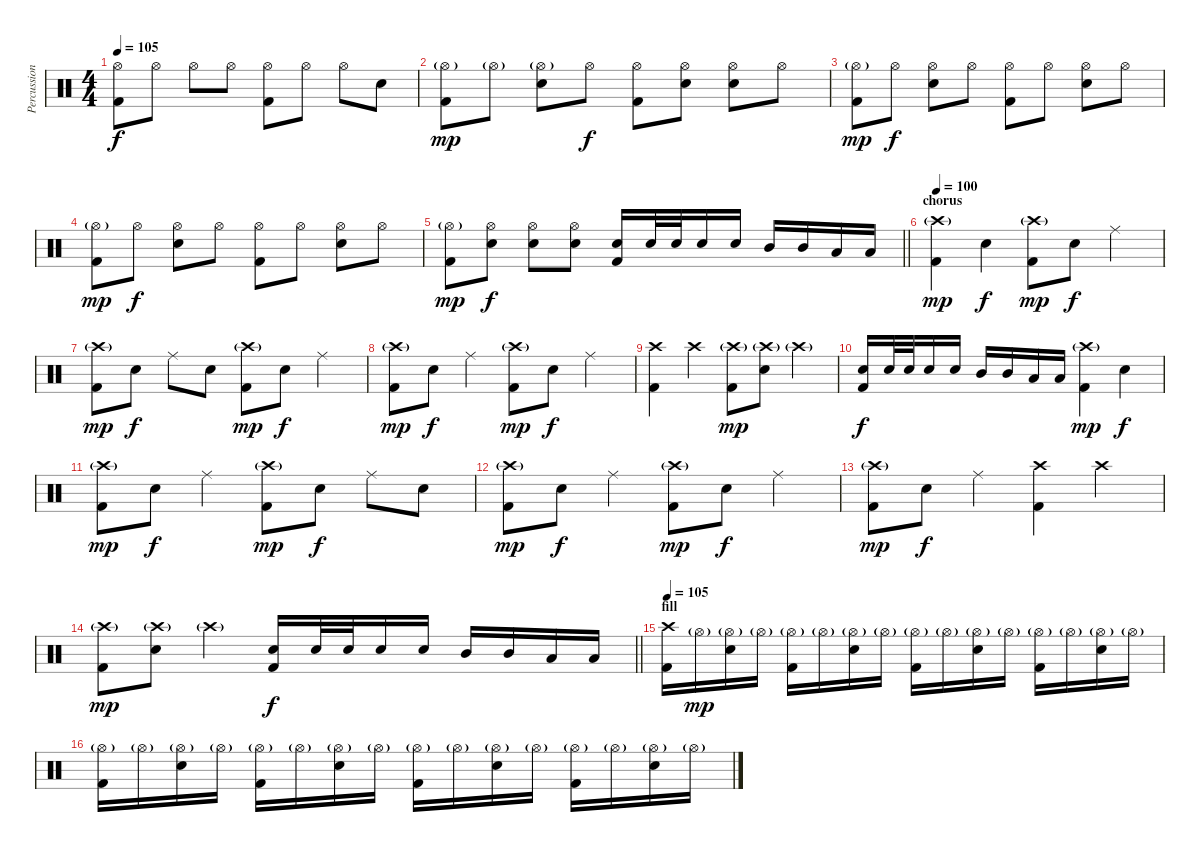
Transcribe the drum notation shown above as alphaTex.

\track ("Percussion" "Percussion") {instrument percussion}
\staff {score}
\articulation defaults
\ts (4 4)
\tempo 105
\clef neutral
\ks c
("Hi-Hat (open)" "Kick (hit) 2").8{dy f} "Hi-Hat (open)".8 "Hi-Hat (open)".8 "Hi-Hat (open)".8 ("Hi-Hat (open)" "Kick (hit) 2").8 "Hi-Hat (open)".8 "Hi-Hat (open)".8 "Electric Snare (hit)".8 |
("Hi-Hat (open)"{g} "Kick (hit) 2").8{dy mp} "Hi-Hat (open)"{g}.8 ("Hi-Hat (open)"{g} "Electric Snare (hit)").8 "Hi-Hat (open)".8{dy f} ("Hi-Hat (open)" "Kick (hit) 2").8 ("Hi-Hat (open)" "Electric Snare (hit)").8 ("Hi-Hat (open)" "Electric Snare (hit)").8 "Hi-Hat (open)".8 |
("Hi-Hat (open)"{g} "Kick (hit) 2").8{dy mp} "Hi-Hat (open)".8{dy f} ("Hi-Hat (open)" "Electric Snare (hit)").8 "Hi-Hat (open)".8 ("Hi-Hat (open)" "Kick (hit) 2").8 "Hi-Hat (open)".8 ("Hi-Hat (open)" "Electric Snare (hit)").8 "Hi-Hat (open)".8 |
("Hi-Hat (open)"{g} "Kick (hit) 2").8{dy mp} "Hi-Hat (open)".8{dy f} ("Hi-Hat (open)" "Electric Snare (hit)").8 "Hi-Hat (open)".8 ("Hi-Hat (open)" "Kick (hit) 2").8 "Hi-Hat (open)".8 ("Hi-Hat (open)" "Electric Snare (hit)").8 "Hi-Hat (open)".8 |
\barLineRight lightlight
("Hi-Hat (open)"{g} "Kick (hit) 2").8{dy mp} ("Hi-Hat (open)" "Electric Snare (hit)").8{dy f} ("Hi-Hat (open)" "Electric Snare (hit)").8 ("Hi-Hat (open)" "Electric Snare (hit)").8 ("Electric Snare (hit)" "Kick (hit) 2").16 "Electric Snare (hit)".32 "Electric Snare (hit)".32 "Electric Snare (hit)".16 "Electric Snare (hit)".16 "Mid Tom (hit)".16 "Mid Tom (hit)".16 "Low Tom (hit)".16 "Low Tom (hit)".16 |
\section ("" "chorus")
\tempo 100
("Crash high (hit)"{g} "Kick (hit) 2").4{dy mp} "Electric Snare (hit)".4{dy f} ("Crash high (hit)"{g} "Kick (hit) 2").8{dy mp} "Electric Snare (hit)".8{dy f} "Ride (middle)".4 |
("Crash high (hit)"{g} "Kick (hit) 2").8{dy mp} "Electric Snare (hit)".8{dy f} "Ride (middle)".8 "Electric Snare (hit)".8 ("Crash high (hit)"{g} "Kick (hit) 2").8{dy mp} "Electric Snare (hit)".8{dy f} "Ride (middle)".4 |
("Crash high (hit)"{g} "Kick (hit) 2").8{dy mp} "Electric Snare (hit)".8{dy f} "Ride (middle)".4 ("Crash high (hit)"{g} "Kick (hit) 2").8{dy mp} "Electric Snare (hit)".8{dy f} "Ride (middle)".4 |
("Crash high (hit)" "Kick (hit) 2").4 "Crash high (hit)".4 ("Crash high (hit)"{g} "Kick (hit) 2").8{dy mp} ("Crash high (hit)"{g} "Electric Snare (hit)").8 "Crash high (hit)"{g}.4 |
("Electric Snare (hit)" "Kick (hit) 2").16{dy f} "Electric Snare (hit)".32 "Electric Snare (hit)".32 "Electric Snare (hit)".16 "Electric Snare (hit)".16 "Mid Tom (hit)".16 "Mid Tom (hit)".16 "Low Tom (hit)".16 "Low Tom (hit)".16 ("Crash high (hit)"{g} "Kick (hit) 2").4{dy mp} "Electric Snare (hit)".4{dy f} |
("Crash high (hit)"{g} "Kick (hit) 2").8{dy mp} "Electric Snare (hit)".8{dy f} "Ride (middle)".4 ("Crash high (hit)"{g} "Kick (hit) 2").8{dy mp} "Electric Snare (hit)".8{dy f} "Ride (middle)".8 "Electric Snare (hit)".8 |
("Crash high (hit)"{g} "Kick (hit) 2").8{dy mp} "Electric Snare (hit)".8{dy f} "Ride (middle)".4 ("Crash high (hit)"{g} "Kick (hit) 2").8{dy mp} "Electric Snare (hit)".8{dy f} "Ride (middle)".4 |
("Crash high (hit)"{g} "Kick (hit) 2").8{dy mp} "Electric Snare (hit)".8{dy f} "Ride (middle)".4 ("Crash high (hit)" "Kick (hit) 2").4 "Crash high (hit)".4 |
\barLineRight lightlight
("Crash high (hit)"{g} "Kick (hit) 2").8{dy mp} ("Crash high (hit)"{g} "Electric Snare (hit)").8 "Crash high (hit)"{g}.4 ("Electric Snare (hit)" "Kick (hit) 2").16{dy f} "Electric Snare (hit)".32 "Electric Snare (hit)".32 "Electric Snare (hit)".16 "Electric Snare (hit)".16 "Mid Tom (hit)".16 "Mid Tom (hit)".16 "Low Tom (hit)".16 "Low Tom (hit)".16 |
\section ("" "fill")
\tempo 105
("Crash high (hit)" "Kick (hit) 2").16 "Hi-Hat (open)"{g}.16{dy mp} ("Hi-Hat (open)"{g} "Electric Snare (hit)").16 "Hi-Hat (open)"{g}.16 ("Hi-Hat (open)"{g} "Kick (hit) 2").16 "Hi-Hat (open)"{g}.16 ("Hi-Hat (open)"{g} "Electric Snare (hit)").16 "Hi-Hat (open)"{g}.16 ("Hi-Hat (open)"{g} "Kick (hit) 2").16 "Hi-Hat (open)"{g}.16 ("Hi-Hat (open)"{g} "Electric Snare (hit)").16 "Hi-Hat (open)"{g}.16 ("Hi-Hat (open)"{g} "Kick (hit) 2").16 "Hi-Hat (open)"{g}.16 ("Hi-Hat (open)"{g} "Electric Snare (hit)").16 "Hi-Hat (open)"{g}.16 |
("Hi-Hat (open)"{g} "Kick (hit) 2").16 "Hi-Hat (open)"{g}.16 ("Hi-Hat (open)"{g} "Electric Snare (hit)").16 "Hi-Hat (open)"{g}.16 ("Hi-Hat (open)"{g} "Kick (hit) 2").16 "Hi-Hat (open)"{g}.16 ("Hi-Hat (open)"{g} "Electric Snare (hit)").16 "Hi-Hat (open)"{g}.16 ("Hi-Hat (open)"{g} "Kick (hit) 2").16 "Hi-Hat (open)"{g}.16 ("Hi-Hat (open)"{g} "Electric Snare (hit)").16 "Hi-Hat (open)"{g}.16 ("Hi-Hat (open)"{g} "Kick (hit) 2").16 "Hi-Hat (open)"{g}.16 ("Hi-Hat (open)"{g} "Electric Snare (hit)").16 "Hi-Hat (open)"{g}.16
